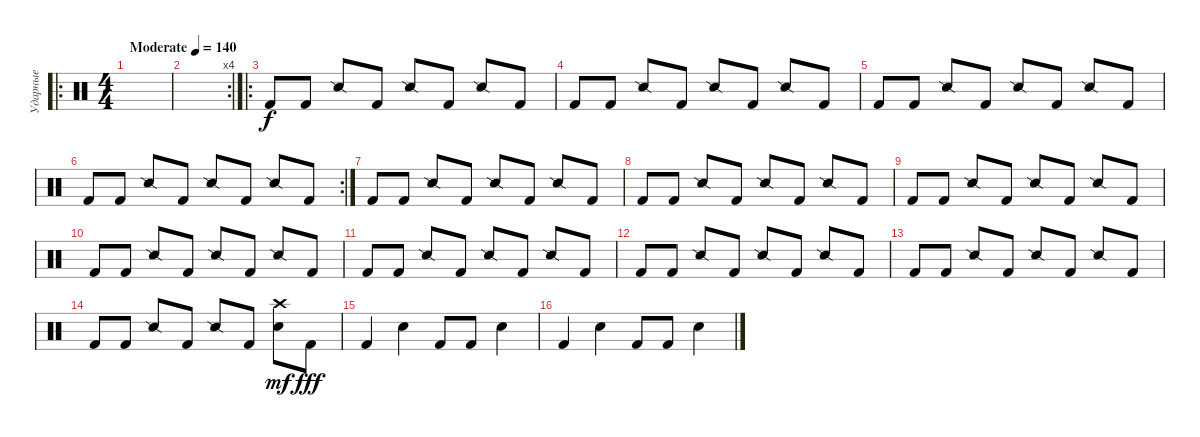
\track ("Ударные" "Ударные") {instrument percussion}
\staff {score}
\articulation defaults
\ro
\ts (4 4)
\tempo (140 "Moderate")
\clef neutral
\ks c
|
\rc 4
|
\ro "Kick (hit) 2".8 "Kick (hit) 2".8 "Snare (side stick) 2".8 "Kick (hit) 2".8 "Snare (side stick) 2".8 "Kick (hit) 2".8 "Snare (side stick) 2".8 "Kick (hit) 2".8
|
"Kick (hit) 2".8 "Kick (hit) 2".8 "Snare (side stick) 2".8 "Kick (hit) 2".8 "Snare (side stick) 2".8 "Kick (hit) 2".8 "Snare (side stick) 2".8 "Kick (hit) 2".8 |
"Kick (hit) 2".8 "Kick (hit) 2".8 "Snare (side stick) 2".8 "Kick (hit) 2".8 "Snare (side stick) 2".8 "Kick (hit) 2".8 "Snare (side stick) 2".8 "Kick (hit) 2".8 |
\rc 2 "Kick (hit) 2".8 "Kick (hit) 2".8 "Snare (side stick) 2".8 "Kick (hit) 2".8 "Snare (side stick) 2".8 "Kick (hit) 2".8 "Snare (side stick) 2".8 "Kick (hit) 2".8
|
"Kick (hit) 2".8 "Kick (hit) 2".8 "Snare (side stick) 2".8 "Kick (hit) 2".8 "Snare (side stick) 2".8 "Kick (hit) 2".8 "Snare (side stick) 2".8 "Kick (hit) 2".8 |
"Kick (hit) 2".8 "Kick (hit) 2".8 "Snare (side stick) 2".8 "Kick (hit) 2".8 "Snare (side stick) 2".8 "Kick (hit) 2".8 "Snare (side stick) 2".8 "Kick (hit) 2".8 |
"Kick (hit) 2".8 "Kick (hit) 2".8 "Snare (side stick) 2".8 "Kick (hit) 2".8 "Snare (side stick) 2".8 "Kick (hit) 2".8 "Snare (side stick) 2".8 "Kick (hit) 2".8 |
"Kick (hit) 2".8 "Kick (hit) 2".8 "Snare (side stick) 2".8 "Kick (hit) 2".8 "Snare (side stick) 2".8 "Kick (hit) 2".8 "Snare (side stick) 2".8 "Kick (hit) 2".8 |
"Kick (hit) 2".8 "Kick (hit) 2".8 "Snare (side stick) 2".8 "Kick (hit) 2".8 "Snare (side stick) 2".8 "Kick (hit) 2".8 "Snare (side stick) 2".8 "Kick (hit) 2".8 |
"Kick (hit) 2".8 "Kick (hit) 2".8 "Snare (side stick) 2".8 "Kick (hit) 2".8 "Snare (side stick) 2".8 "Kick (hit) 2".8 "Snare (side stick) 2".8 "Kick (hit) 2".8 |
"Kick (hit) 2".8 "Kick (hit) 2".8 "Snare (side stick) 2".8 "Kick (hit) 2".8 "Snare (side stick) 2".8 "Kick (hit) 2".8 "Snare (side stick) 2".8 "Kick (hit) 2".8 |
"Kick (hit) 2".8 "Kick (hit) 2".8 "Snare (side stick) 2".8 "Kick (hit) 2".8 "Snare (side stick) 2".8 "Kick (hit) 2".8 ("Electric Snare (hit)" "Crash high (hit)").8{dy mf} "Kick (hit) 2".8{dy fff} |
"Kick (hit) 2".4 "Electric Snare (hit)".4 "Kick (hit) 2".8 "Kick (hit) 2".8 "Electric Snare (hit)".4 |
"Kick (hit) 2".4 "Electric Snare (hit)".4 "Kick (hit) 2".8 "Kick (hit) 2".8 "Electric Snare (hit)".4
